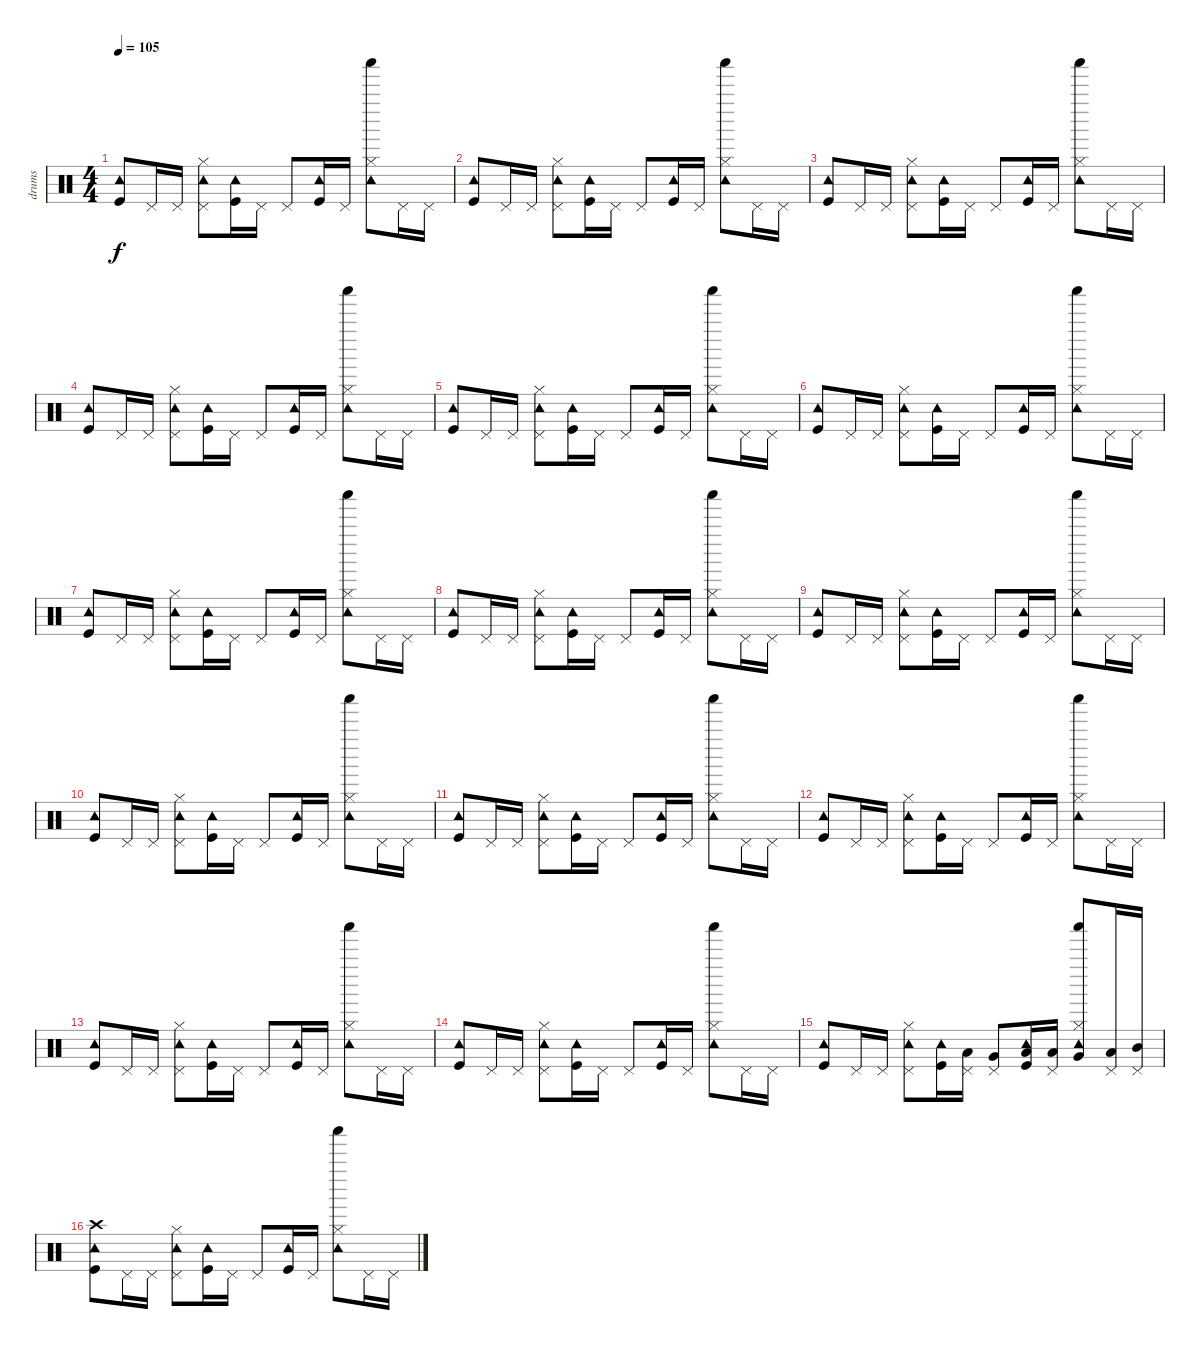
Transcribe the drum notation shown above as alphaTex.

\track ("drums" "drums") {instrument percussion}
\staff {score}
\articulation defaults
\ts (4 4)
\tempo 105
\clef neutral
\ks c
("Kick (hit)" "Tambourine (hit)").8{dy f} "Pedal Hi-Hat (hit)".16 "Pedal Hi-Hat (hit)".16 ("Tambourine (hit)" "Pedal Hi-Hat (hit)" "Hi-Hat (closed)").8 ("Kick (hit)" "Tambourine (hit)").16 "Pedal Hi-Hat (hit)".16 "Pedal Hi-Hat (hit)".8 ("Kick (hit)" "Tambourine (hit)").16 "Pedal Hi-Hat (hit)".16 ("Tambourine (hit)" "Shaker (hit)" "Hi-Hat (closed)").8 "Pedal Hi-Hat (hit)".16 "Pedal Hi-Hat (hit)".16 |
("Kick (hit)" "Tambourine (hit)").8 "Pedal Hi-Hat (hit)".16 "Pedal Hi-Hat (hit)".16 ("Tambourine (hit)" "Pedal Hi-Hat (hit)" "Hi-Hat (closed)").8 ("Kick (hit)" "Tambourine (hit)").16 "Pedal Hi-Hat (hit)".16 "Pedal Hi-Hat (hit)".8 ("Kick (hit)" "Tambourine (hit)").16 "Pedal Hi-Hat (hit)".16 ("Tambourine (hit)" "Shaker (hit)" "Hi-Hat (closed)").8 "Pedal Hi-Hat (hit)".16 "Pedal Hi-Hat (hit)".16 |
("Kick (hit)" "Tambourine (hit)").8 "Pedal Hi-Hat (hit)".16 "Pedal Hi-Hat (hit)".16 ("Tambourine (hit)" "Pedal Hi-Hat (hit)" "Hi-Hat (closed)").8 ("Kick (hit)" "Tambourine (hit)").16 "Pedal Hi-Hat (hit)".16 "Pedal Hi-Hat (hit)".8 ("Kick (hit)" "Tambourine (hit)").16 "Pedal Hi-Hat (hit)".16 ("Tambourine (hit)" "Shaker (hit)" "Hi-Hat (closed)").8 "Pedal Hi-Hat (hit)".16 "Pedal Hi-Hat (hit)".16 |
("Kick (hit)" "Tambourine (hit)").8 "Pedal Hi-Hat (hit)".16 "Pedal Hi-Hat (hit)".16 ("Tambourine (hit)" "Pedal Hi-Hat (hit)" "Hi-Hat (closed)").8 ("Kick (hit)" "Tambourine (hit)").16 "Pedal Hi-Hat (hit)".16 "Pedal Hi-Hat (hit)".8 ("Kick (hit)" "Tambourine (hit)").16 "Pedal Hi-Hat (hit)".16 ("Tambourine (hit)" "Shaker (hit)" "Hi-Hat (closed)").8 "Pedal Hi-Hat (hit)".16 "Pedal Hi-Hat (hit)".16 |
("Kick (hit)" "Tambourine (hit)").8 "Pedal Hi-Hat (hit)".16 "Pedal Hi-Hat (hit)".16 ("Tambourine (hit)" "Pedal Hi-Hat (hit)" "Hi-Hat (closed)").8 ("Kick (hit)" "Tambourine (hit)").16 "Pedal Hi-Hat (hit)".16 "Pedal Hi-Hat (hit)".8 ("Kick (hit)" "Tambourine (hit)").16 "Pedal Hi-Hat (hit)".16 ("Tambourine (hit)" "Shaker (hit)" "Hi-Hat (closed)").8 "Pedal Hi-Hat (hit)".16 "Pedal Hi-Hat (hit)".16 |
("Kick (hit)" "Tambourine (hit)").8 "Pedal Hi-Hat (hit)".16 "Pedal Hi-Hat (hit)".16 ("Tambourine (hit)" "Pedal Hi-Hat (hit)" "Hi-Hat (closed)").8 ("Kick (hit)" "Tambourine (hit)").16 "Pedal Hi-Hat (hit)".16 "Pedal Hi-Hat (hit)".8 ("Kick (hit)" "Tambourine (hit)").16 "Pedal Hi-Hat (hit)".16 ("Tambourine (hit)" "Shaker (hit)" "Hi-Hat (closed)").8 "Pedal Hi-Hat (hit)".16 "Pedal Hi-Hat (hit)".16 |
("Kick (hit)" "Tambourine (hit)").8 "Pedal Hi-Hat (hit)".16 "Pedal Hi-Hat (hit)".16 ("Tambourine (hit)" "Pedal Hi-Hat (hit)" "Hi-Hat (closed)").8 ("Kick (hit)" "Tambourine (hit)").16 "Pedal Hi-Hat (hit)".16 "Pedal Hi-Hat (hit)".8 ("Kick (hit)" "Tambourine (hit)").16 "Pedal Hi-Hat (hit)".16 ("Tambourine (hit)" "Shaker (hit)" "Hi-Hat (closed)").8 "Pedal Hi-Hat (hit)".16 "Pedal Hi-Hat (hit)".16 |
("Kick (hit)" "Tambourine (hit)").8 "Pedal Hi-Hat (hit)".16 "Pedal Hi-Hat (hit)".16 ("Tambourine (hit)" "Pedal Hi-Hat (hit)" "Hi-Hat (closed)").8 ("Kick (hit)" "Tambourine (hit)").16 "Pedal Hi-Hat (hit)".16 "Pedal Hi-Hat (hit)".8 ("Kick (hit)" "Tambourine (hit)").16 "Pedal Hi-Hat (hit)".16 ("Tambourine (hit)" "Shaker (hit)" "Hi-Hat (closed)").8 "Pedal Hi-Hat (hit)".16 "Pedal Hi-Hat (hit)".16 |
("Kick (hit)" "Tambourine (hit)").8 "Pedal Hi-Hat (hit)".16 "Pedal Hi-Hat (hit)".16 ("Tambourine (hit)" "Pedal Hi-Hat (hit)" "Hi-Hat (closed)").8 ("Kick (hit)" "Tambourine (hit)").16 "Pedal Hi-Hat (hit)".16 "Pedal Hi-Hat (hit)".8 ("Kick (hit)" "Tambourine (hit)").16 "Pedal Hi-Hat (hit)".16 ("Tambourine (hit)" "Shaker (hit)" "Hi-Hat (closed)").8 "Pedal Hi-Hat (hit)".16 "Pedal Hi-Hat (hit)".16 |
("Kick (hit)" "Tambourine (hit)").8 "Pedal Hi-Hat (hit)".16 "Pedal Hi-Hat (hit)".16 ("Tambourine (hit)" "Pedal Hi-Hat (hit)" "Hi-Hat (closed)").8 ("Kick (hit)" "Tambourine (hit)").16 "Pedal Hi-Hat (hit)".16 "Pedal Hi-Hat (hit)".8 ("Kick (hit)" "Tambourine (hit)").16 "Pedal Hi-Hat (hit)".16 ("Tambourine (hit)" "Shaker (hit)" "Hi-Hat (closed)").8 "Pedal Hi-Hat (hit)".16 "Pedal Hi-Hat (hit)".16 |
("Kick (hit)" "Tambourine (hit)").8 "Pedal Hi-Hat (hit)".16 "Pedal Hi-Hat (hit)".16 ("Tambourine (hit)" "Pedal Hi-Hat (hit)" "Hi-Hat (closed)").8 ("Kick (hit)" "Tambourine (hit)").16 "Pedal Hi-Hat (hit)".16 "Pedal Hi-Hat (hit)".8 ("Kick (hit)" "Tambourine (hit)").16 "Pedal Hi-Hat (hit)".16 ("Tambourine (hit)" "Shaker (hit)" "Hi-Hat (closed)").8 "Pedal Hi-Hat (hit)".16 "Pedal Hi-Hat (hit)".16 |
("Kick (hit)" "Tambourine (hit)").8 "Pedal Hi-Hat (hit)".16 "Pedal Hi-Hat (hit)".16 ("Tambourine (hit)" "Pedal Hi-Hat (hit)" "Hi-Hat (closed)").8 ("Kick (hit)" "Tambourine (hit)").16 "Pedal Hi-Hat (hit)".16 "Pedal Hi-Hat (hit)".8 ("Kick (hit)" "Tambourine (hit)").16 "Pedal Hi-Hat (hit)".16 ("Tambourine (hit)" "Shaker (hit)" "Hi-Hat (closed)").8 "Pedal Hi-Hat (hit)".16 "Pedal Hi-Hat (hit)".16 |
("Kick (hit)" "Tambourine (hit)").8 "Pedal Hi-Hat (hit)".16 "Pedal Hi-Hat (hit)".16 ("Tambourine (hit)" "Pedal Hi-Hat (hit)" "Hi-Hat (closed)").8 ("Kick (hit)" "Tambourine (hit)").16 "Pedal Hi-Hat (hit)".16 "Pedal Hi-Hat (hit)".8 ("Kick (hit)" "Tambourine (hit)").16 "Pedal Hi-Hat (hit)".16 ("Tambourine (hit)" "Shaker (hit)" "Hi-Hat (closed)").8 "Pedal Hi-Hat (hit)".16 "Pedal Hi-Hat (hit)".16 |
("Kick (hit)" "Tambourine (hit)").8 "Pedal Hi-Hat (hit)".16 "Pedal Hi-Hat (hit)".16 ("Tambourine (hit)" "Pedal Hi-Hat (hit)" "Hi-Hat (closed)").8 ("Kick (hit)" "Tambourine (hit)").16 "Pedal Hi-Hat (hit)".16 "Pedal Hi-Hat (hit)".8 ("Kick (hit)" "Tambourine (hit)").16 "Pedal Hi-Hat (hit)".16 ("Tambourine (hit)" "Shaker (hit)" "Hi-Hat (closed)").8 "Pedal Hi-Hat (hit)".16 "Pedal Hi-Hat (hit)".16 |
("Kick (hit)" "Tambourine (hit)").8 "Pedal Hi-Hat (hit)".16 "Pedal Hi-Hat (hit)".16 ("Tambourine (hit)" "Pedal Hi-Hat (hit)" "Hi-Hat (closed)").8 ("Kick (hit)" "Tambourine (hit)").16 ("Low Floor Tom (hit)" "Pedal Hi-Hat (hit)").16 ("Very Low Tom (hit)" "Pedal Hi-Hat (hit)").8 ("Kick (hit)" "Tambourine (hit)" "Low Tom (hit)").16 ("Low Floor Tom (hit)" "Pedal Hi-Hat (hit)").16 ("Very Low Tom (hit)" "Tambourine (hit)" "Shaker (hit)" "Hi-Hat (closed)").8 ("Low Tom (hit)" "Pedal Hi-Hat (hit)").16 ("Mid Tom (hit)" "Pedal Hi-Hat (hit)").16 |
("Crash high (hit)" "Kick (hit)" "Tambourine (hit)").8 "Pedal Hi-Hat (hit)".16 "Pedal Hi-Hat (hit)".16 ("Tambourine (hit)" "Pedal Hi-Hat (hit)" "Hi-Hat (closed)").8 ("Kick (hit)" "Tambourine (hit)").16 "Pedal Hi-Hat (hit)".16 "Pedal Hi-Hat (hit)".8 ("Kick (hit)" "Tambourine (hit)").16 "Pedal Hi-Hat (hit)".16 ("Tambourine (hit)" "Shaker (hit)" "Hi-Hat (closed)").8 "Pedal Hi-Hat (hit)".16 "Pedal Hi-Hat (hit)".16
